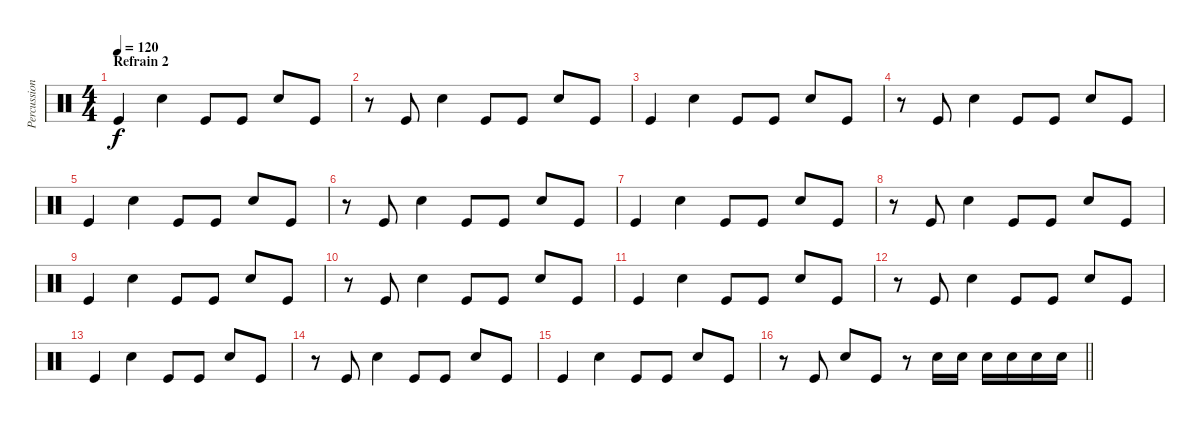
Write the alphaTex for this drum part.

\track ("Percussion" "Percussion") {instrument percussion}
\staff {score}
\articulation defaults
\ts (4 4)
\section ("" "Refrain 2")
\tempo 120
\clef neutral
\ks c "Kick (hit)".4{dy f} "Snare (hit) 2".4 "Kick (hit)".8 "Kick (hit)".8 "Snare (hit) 2".8 "Kick (hit)".8
|
r.8 "Kick (hit)".8 "Snare (hit) 2".4 "Kick (hit)".8 "Kick (hit)".8 "Snare (hit) 2".8 "Kick (hit)".8 |
"Kick (hit)".4 "Snare (hit) 2".4 "Kick (hit)".8 "Kick (hit)".8 "Snare (hit) 2".8 "Kick (hit)".8 |
r.8 "Kick (hit)".8 "Snare (hit) 2".4 "Kick (hit)".8 "Kick (hit)".8 "Snare (hit) 2".8 "Kick (hit)".8 |
"Kick (hit)".4 "Snare (hit) 2".4 "Kick (hit)".8 "Kick (hit)".8 "Snare (hit) 2".8 "Kick (hit)".8 |
r.8 "Kick (hit)".8 "Snare (hit) 2".4 "Kick (hit)".8 "Kick (hit)".8 "Snare (hit) 2".8 "Kick (hit)".8 |
"Kick (hit)".4 "Snare (hit) 2".4 "Kick (hit)".8 "Kick (hit)".8 "Snare (hit) 2".8 "Kick (hit)".8 |
r.8 "Kick (hit)".8 "Snare (hit) 2".4 "Kick (hit)".8 "Kick (hit)".8 "Snare (hit) 2".8 "Kick (hit)".8 |
"Kick (hit)".4 "Snare (hit) 2".4 "Kick (hit)".8 "Kick (hit)".8 "Snare (hit) 2".8 "Kick (hit)".8 |
r.8 "Kick (hit)".8 "Snare (hit) 2".4 "Kick (hit)".8 "Kick (hit)".8 "Snare (hit) 2".8 "Kick (hit)".8 |
"Kick (hit)".4 "Snare (hit) 2".4 "Kick (hit)".8 "Kick (hit)".8 "Snare (hit) 2".8 "Kick (hit)".8 |
r.8 "Kick (hit)".8 "Snare (hit) 2".4 "Kick (hit)".8 "Kick (hit)".8 "Snare (hit) 2".8 "Kick (hit)".8 |
"Kick (hit)".4 "Snare (hit) 2".4 "Kick (hit)".8 "Kick (hit)".8 "Snare (hit) 2".8 "Kick (hit)".8 |
r.8 "Kick (hit)".8 "Snare (hit) 2".4 "Kick (hit)".8 "Kick (hit)".8 "Snare (hit) 2".8 "Kick (hit)".8 |
"Kick (hit)".4 "Snare (hit) 2".4 "Kick (hit)".8 "Kick (hit)".8 "Snare (hit) 2".8 "Kick (hit)".8 |
\barLineRight lightlight
r.8 "Kick (hit)".8 "Snare (hit) 2".8 "Kick (hit)".8 r.8 "Snare (hit) 2".16 "Snare (hit) 2".16 "Snare (hit) 2".16 "Snare (hit) 2".16 "Snare (hit) 2".16 "Snare (hit) 2".16
